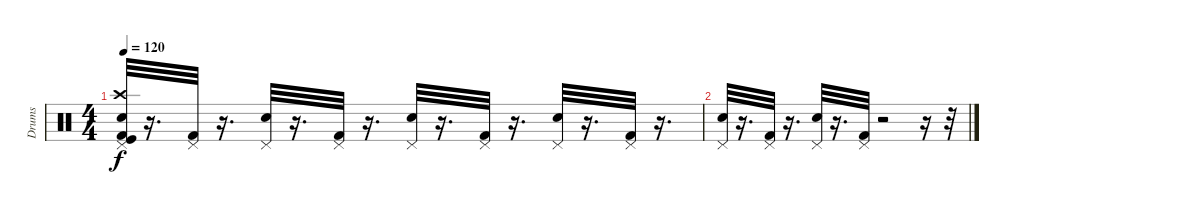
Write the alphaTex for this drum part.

\track ("Drums" "Drums") {instrument percussion}
\staff {score}
\articulation defaults
\ts (4 4)
\tempo 120
\clef neutral
\ks c
("Kick (hit) 2" "Crash high (hit)" "Pedal Hi-Hat (hit)" "Snare (hit) 2" "Kick (hit)").32{dy f} r.16{d} ("Kick (hit) 2" "Pedal Hi-Hat (hit)").32 r.16{d} ("Pedal Hi-Hat (hit)" "Snare (hit) 2").32 r.16{d} ("Pedal Hi-Hat (hit)" "Kick (hit) 2").32 r.16{d} ("Snare (hit) 2" "Pedal Hi-Hat (hit)").32 r.16{d} ("Pedal Hi-Hat (hit)" "Kick (hit) 2").32 r.16{d} ("Pedal Hi-Hat (hit)" "Snare (hit) 2").32 r.16{d} ("Pedal Hi-Hat (hit)" "Kick (hit) 2").32 r.16{d} |
("Snare (hit) 2" "Pedal Hi-Hat (hit)").32 r.16{d} ("Kick (hit) 2" "Pedal Hi-Hat (hit)").32 r.16{d} ("Pedal Hi-Hat (hit)" "Snare (hit) 2").32 r.16{d} ("Pedal Hi-Hat (hit)" "Kick (hit) 2").32 r.2 r.16 r.32
